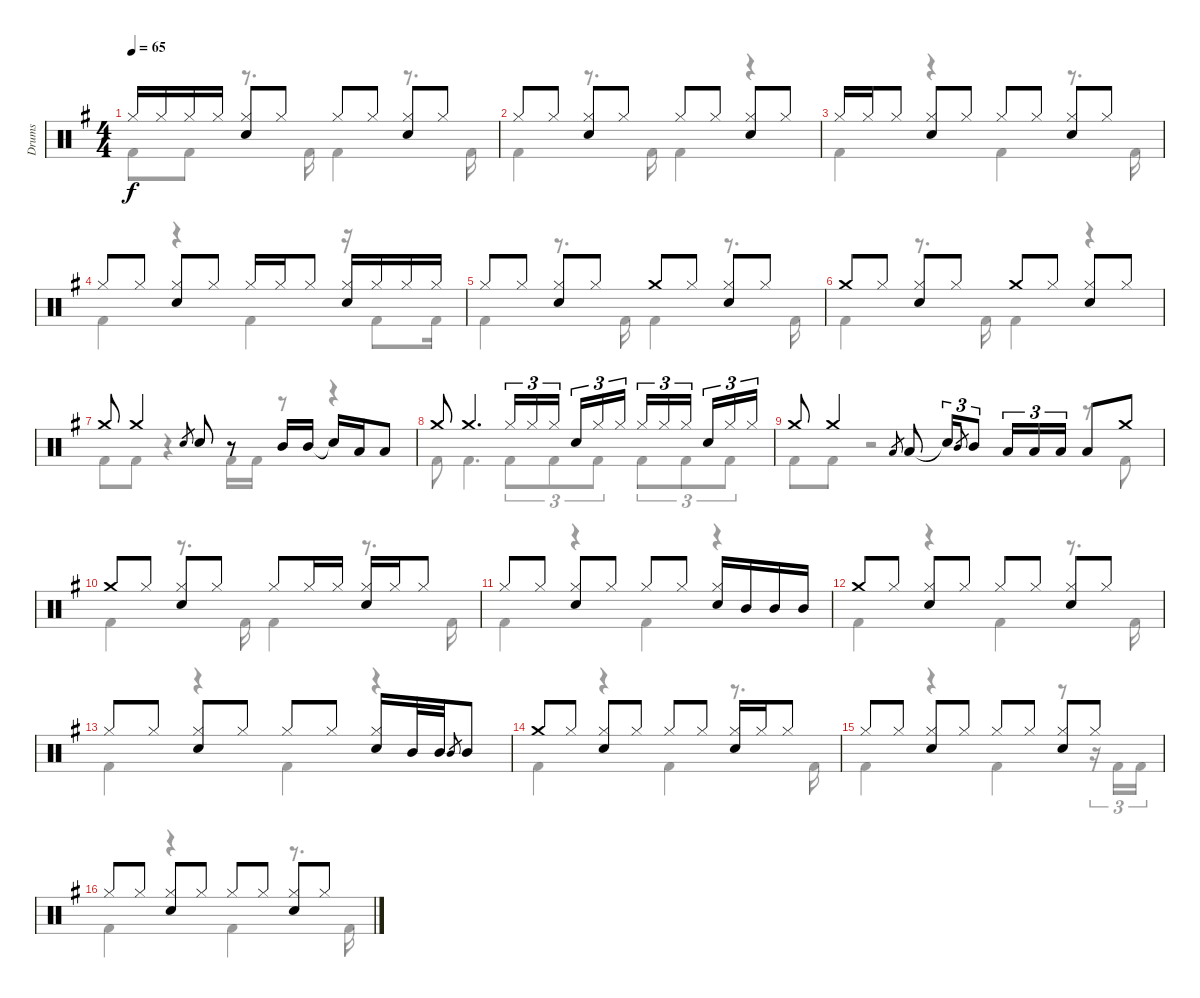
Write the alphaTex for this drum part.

\track ("Drums" "Drums") {instrument percussion}
\staff {score}
\articulation defaults
\voice
\ts (4 4)
\tempo 65
\clef neutral
\ks g "Hi-Hat (closed)".16{dy f} "Hi-Hat (closed)".16 "Hi-Hat (closed)".16 "Hi-Hat (closed)".16
("Hi-Hat (closed)" "Snare (hit) 2").8 "Hi-Hat (closed)".8 "Hi-Hat (closed)".8 "Hi-Hat (closed)".8 ("Hi-Hat (closed)" "Snare (hit) 2").8 "Hi-Hat (closed)".8 |
"Hi-Hat (closed)".8 "Hi-Hat (closed)".8 ("Hi-Hat (closed)" "Snare (hit) 2").8 "Hi-Hat (closed)".8 "Hi-Hat (closed)".8 "Hi-Hat (closed)".8 ("Hi-Hat (closed)" "Snare (hit) 2").8 "Hi-Hat (closed)".8 |
"Hi-Hat (closed)".16 "Hi-Hat (closed)".16 "Hi-Hat (closed)".8 ("Hi-Hat (closed)" "Snare (hit) 2").8 "Hi-Hat (closed)".8 "Hi-Hat (closed)".8 "Hi-Hat (closed)".8 ("Hi-Hat (closed)" "Snare (hit) 2").8 "Hi-Hat (closed)".8 |
"Hi-Hat (closed)".8 "Hi-Hat (closed)".8 ("Hi-Hat (closed)" "Snare (hit) 2").8 "Hi-Hat (closed)".8 "Hi-Hat (closed)".16 "Hi-Hat (closed)".16 "Hi-Hat (closed)".8 ("Hi-Hat (closed)" "Snare (hit) 2").16 "Hi-Hat (closed)".16 "Hi-Hat (closed)".16 "Hi-Hat (closed)".16 |
"Hi-Hat (closed)".8 "Hi-Hat (closed)".8 ("Hi-Hat (closed)" "Snare (hit) 2").8 "Hi-Hat (closed)".8 "Crash medium (hit)".8 "Hi-Hat (closed)".8 ("Hi-Hat (closed)" "Snare (hit) 2").8 "Hi-Hat (closed)".8 |
"Crash medium (hit)".8 "Hi-Hat (closed)".8 ("Hi-Hat (closed)" "Snare (hit) 2").8 "Hi-Hat (closed)".8 "Crash medium (hit)".8 "Hi-Hat (closed)".8 ("Hi-Hat (closed)" "Snare (hit) 2").8 "Hi-Hat (closed)".8 |
"Crash medium (hit)".8 "Crash medium (hit)".4 "Snare (hit) 2".8{gr} "Snare (hit) 2".8 r.8 "Mid Tom (hit)".16 "Mid Tom (hit)".16 "Snare (hit)"{t}.16 "Low Tom (hit)".16 "Low Tom (hit)".8 |
"Crash medium (hit)".8 "Crash medium (hit)".4{d} "Hi-Hat (closed)".16{tu (3 2)} "Hi-Hat (closed)".16{tu (3 2)} "Hi-Hat (closed)".16{tu (3 2) beam splitsecondary} "Snare (hit) 2".16{tu (3 2)} "Hi-Hat (closed)".16{tu (3 2)} "Hi-Hat (closed)".16{tu (3 2)} "Hi-Hat (closed)".16{tu (3 2)} "Hi-Hat (closed)".16{tu (3 2)} "Hi-Hat (closed)".16{tu (3 2) beam splitsecondary} "Snare (hit) 2".16{tu (3 2)} "Hi-Hat (closed)".16{tu (3 2)} "Hi-Hat (closed)".16{tu (3 2)} |
"Crash medium (hit)".8 "Crash medium (hit)".4 "Low Tom (hit)".8{gr} "Low Tom (hit)".8 "Snare (hit)"{t}.16{tu (3 2)} "Mid Tom (hit)".8{gr} "Mid Tom (hit)".8{tu (3 2)} "Low Tom (hit)".16{tu (3 2)} "Low Tom (hit)".16{tu (3 2)} "Low Tom (hit)".16{tu (3 2)} "Low Tom (hit)".8 "Crash medium (hit)".8 |
"Crash medium (hit)".8 "Hi-Hat (closed)".8 ("Hi-Hat (closed)" "Snare (hit) 2").8 "Hi-Hat (closed)".8 "Hi-Hat (closed)".8 "Hi-Hat (closed)".16 "Hi-Hat (closed)".16 ("Hi-Hat (closed)" "Snare (hit) 2").16 "Hi-Hat (closed)".16 "Hi-Hat (closed)".8 |
"Hi-Hat (closed)".8 "Hi-Hat (closed)".8 ("Hi-Hat (closed)" "Snare (hit) 2").8 "Hi-Hat (closed)".8 "Hi-Hat (closed)".8 "Hi-Hat (closed)".8 ("Hi-Hat (closed)" "Snare (hit) 2").16 "Mid Tom (hit)".16 "Mid Tom (hit)".16 "Mid Tom (hit)".16 |
"Crash medium (hit)".8 "Hi-Hat (closed)".8 ("Hi-Hat (closed)" "Snare (hit) 2").8 "Hi-Hat (closed)".8 "Hi-Hat (closed)".8 "Hi-Hat (closed)".8 ("Hi-Hat (closed)" "Snare (hit) 2").8 "Hi-Hat (closed)".8 |
"Hi-Hat (closed)".8 "Hi-Hat (closed)".8 ("Hi-Hat (closed)" "Snare (hit) 2").8 "Hi-Hat (closed)".8 "Hi-Hat (closed)".8 "Hi-Hat (closed)".8 ("Hi-Hat (closed)" "Snare (hit) 2").16 "Mid Tom (hit)".32 "Mid Tom (hit)".32 "Mid Tom (hit)".8{gr} "Mid Tom (hit)".8 |
"Crash medium (hit)".8 "Hi-Hat (closed)".8 ("Hi-Hat (closed)" "Snare (hit) 2").8 "Hi-Hat (closed)".8 "Hi-Hat (closed)".8 "Hi-Hat (closed)".8 ("Hi-Hat (closed)" "Snare (hit) 2").16 "Hi-Hat (closed)".16 "Hi-Hat (closed)".8 |
"Hi-Hat (closed)".8 "Hi-Hat (closed)".8 ("Hi-Hat (closed)" "Snare (hit) 2").8 "Hi-Hat (closed)".8 "Hi-Hat (closed)".8 "Hi-Hat (closed)".8 ("Hi-Hat (closed)" "Snare (hit) 2").8 "Hi-Hat (closed)".8 |
"Hi-Hat (closed)".8 "Hi-Hat (closed)".8 ("Hi-Hat (closed)" "Snare (hit) 2").8 "Hi-Hat (closed)".8 "Hi-Hat (closed)".8 "Hi-Hat (closed)".8 ("Hi-Hat (closed)" "Snare (hit) 2").8 "Hi-Hat (closed)".8
\voice
\clef neutral
\ottava regular
\simile none
\ks g "Kick (hit) 2".8{dy f} "Kick (hit) 2".8
r.8{d} "Kick (hit) 2".16 "Kick (hit) 2".4 r.8{d} "Kick (hit) 2".16 |
"Kick (hit) 2".4 r.8{d} "Kick (hit) 2".16 "Kick (hit) 2".4 r.4 |
"Kick (hit) 2".4 r.4 "Kick (hit) 2".4 r.8{d} "Kick (hit) 2".16 |
"Kick (hit) 2".4 r.4 "Kick (hit) 2".4 r.16 "Kick (hit) 2".8 "Kick (hit) 2".16 |
"Kick (hit) 2".4 r.8{d} "Kick (hit) 2".16 "Kick (hit) 2".4 r.8{d} "Kick (hit) 2".16 |
"Kick (hit) 2".4 r.8{d} "Kick (hit) 2".16 "Kick (hit) 2".4 r.4 |
"Kick (hit) 2".8 "Kick (hit) 2".8 r.4 "Kick (hit) 2".16 "Kick (hit) 2".16 r.8 r.4 |
"Kick (hit) 2".8 "Kick (hit) 2".4{d} "Kick (hit) 2".8{tu (3 2)} "Kick (hit) 2".8{tu (3 2)} "Kick (hit) 2".8{tu (3 2)} "Kick (hit) 2".8{tu (3 2)} "Kick (hit) 2".8{tu (3 2)} "Kick (hit) 2".8{tu (3 2)} |
"Kick (hit) 2".8 "Kick (hit) 2".8 r.2 r.8 "Kick (hit) 2".8 |
"Kick (hit) 2".4 r.8{d} "Kick (hit) 2".16 "Kick (hit) 2".4 r.8{d} "Kick (hit) 2".16 |
"Kick (hit) 2".4 r.4 "Kick (hit) 2".4 r.4 |
"Kick (hit) 2".4 r.4 "Kick (hit) 2".4 r.8{d} "Kick (hit) 2".16 |
"Kick (hit) 2".4 r.4 "Kick (hit) 2".4 r.4 |
"Kick (hit) 2".4 r.4 "Kick (hit) 2".4 r.8{d} "Kick (hit) 2".16 |
"Kick (hit) 2".4 r.4 "Kick (hit) 2".4 r.8 r.16{tu (3 2)} "Kick (hit) 2".16{tu (3 2)} "Kick (hit) 2".16{tu (3 2)} |
"Kick (hit) 2".4 r.4 "Kick (hit) 2".4 r.8{d} "Kick (hit) 2".16
